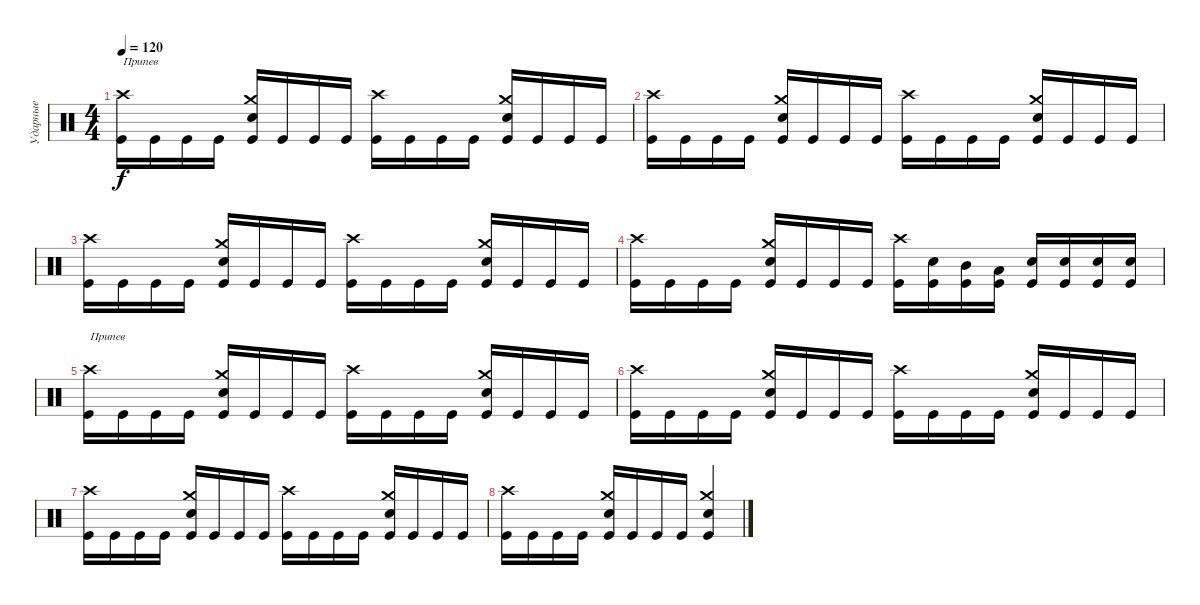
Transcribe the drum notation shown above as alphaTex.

\track ("Ударные" "Ударные") {instrument percussion}
\staff {score}
\articulation defaults
\ts (4 4)
\tempo 120
\clef neutral
\ks c
("Crash high (hit)" "Kick (hit)").16{txt "Припев" dy f} "Kick (hit)".16 "Kick (hit)".16 "Kick (hit)".16 ("Crash medium (hit)" "Snare (hit) 2" "Kick (hit)").16 "Kick (hit)".16 "Kick (hit)".16 "Kick (hit)".16 ("Crash high (hit)" "Kick (hit)").16 "Kick (hit)".16 "Kick (hit)".16 "Kick (hit)".16 ("Crash medium (hit)" "Snare (hit) 2" "Kick (hit)").16 "Kick (hit)".16 "Kick (hit)".16 "Kick (hit)".16 |
("Crash high (hit)" "Kick (hit)").16 "Kick (hit)".16 "Kick (hit)".16 "Kick (hit)".16 ("Crash medium (hit)" "Snare (hit) 2" "Kick (hit)").16 "Kick (hit)".16 "Kick (hit)".16 "Kick (hit)".16 ("Crash high (hit)" "Kick (hit)").16 "Kick (hit)".16 "Kick (hit)".16 "Kick (hit)".16 ("Crash medium (hit)" "Snare (hit) 2" "Kick (hit)").16 "Kick (hit)".16 "Kick (hit)".16 "Kick (hit)".16 |
("Crash high (hit)" "Kick (hit)").16 "Kick (hit)".16 "Kick (hit)".16 "Kick (hit)".16 ("Crash medium (hit)" "Snare (hit) 2" "Kick (hit)").16 "Kick (hit)".16 "Kick (hit)".16 "Kick (hit)".16 ("Crash high (hit)" "Kick (hit)").16 "Kick (hit)".16 "Kick (hit)".16 "Kick (hit)".16 ("Crash medium (hit)" "Snare (hit) 2" "Kick (hit)").16 "Kick (hit)".16 "Kick (hit)".16 "Kick (hit)".16 |
("Crash high (hit)" "Kick (hit)").16 "Kick (hit)".16 "Kick (hit)".16 "Kick (hit)".16 ("Crash medium (hit)" "Snare (hit) 2" "Kick (hit)").16 "Kick (hit)".16 "Kick (hit)".16 "Kick (hit)".16 ("Crash high (hit)" "Kick (hit)").16 ("Snare (hit) 2" "Kick (hit)").16 ("Mid Tom (hit)" "Kick (hit)").16 ("Low Tom (hit)" "Kick (hit)").16 ("Snare (hit) 2" "Kick (hit)").16 ("Snare (hit) 2" "Kick (hit)").16 ("Snare (hit) 2" "Kick (hit)").16 ("Snare (hit) 2" "Kick (hit)").16 |
("Crash high (hit)" "Kick (hit)").16{txt "Припев"} "Kick (hit)".16 "Kick (hit)".16 "Kick (hit)".16 ("Crash medium (hit)" "Snare (hit) 2" "Kick (hit)").16 "Kick (hit)".16 "Kick (hit)".16 "Kick (hit)".16 ("Crash high (hit)" "Kick (hit)").16 "Kick (hit)".16 "Kick (hit)".16 "Kick (hit)".16 ("Crash medium (hit)" "Snare (hit) 2" "Kick (hit)").16 "Kick (hit)".16 "Kick (hit)".16 "Kick (hit)".16 |
("Crash high (hit)" "Kick (hit)").16 "Kick (hit)".16 "Kick (hit)".16 "Kick (hit)".16 ("Crash medium (hit)" "Snare (hit) 2" "Kick (hit)").16 "Kick (hit)".16 "Kick (hit)".16 "Kick (hit)".16 ("Crash high (hit)" "Kick (hit)").16 "Kick (hit)".16 "Kick (hit)".16 "Kick (hit)".16 ("Crash medium (hit)" "Snare (hit) 2" "Kick (hit)").16 "Kick (hit)".16 "Kick (hit)".16 "Kick (hit)".16 |
("Crash high (hit)" "Kick (hit)").16 "Kick (hit)".16 "Kick (hit)".16 "Kick (hit)".16 ("Crash medium (hit)" "Snare (hit) 2" "Kick (hit)").16 "Kick (hit)".16 "Kick (hit)".16 "Kick (hit)".16 ("Crash high (hit)" "Kick (hit)").16 "Kick (hit)".16 "Kick (hit)".16 "Kick (hit)".16 ("Crash medium (hit)" "Snare (hit) 2" "Kick (hit)").16 "Kick (hit)".16 "Kick (hit)".16 "Kick (hit)".16 |
("Crash high (hit)" "Kick (hit)").16 "Kick (hit)".16 "Kick (hit)".16 "Kick (hit)".16 ("Crash medium (hit)" "Snare (hit) 2" "Kick (hit)").16 "Kick (hit)".16 "Kick (hit)".16 "Kick (hit)".16 ("Crash medium (hit)" "Snare (hit) 2" "Kick (hit)").4
